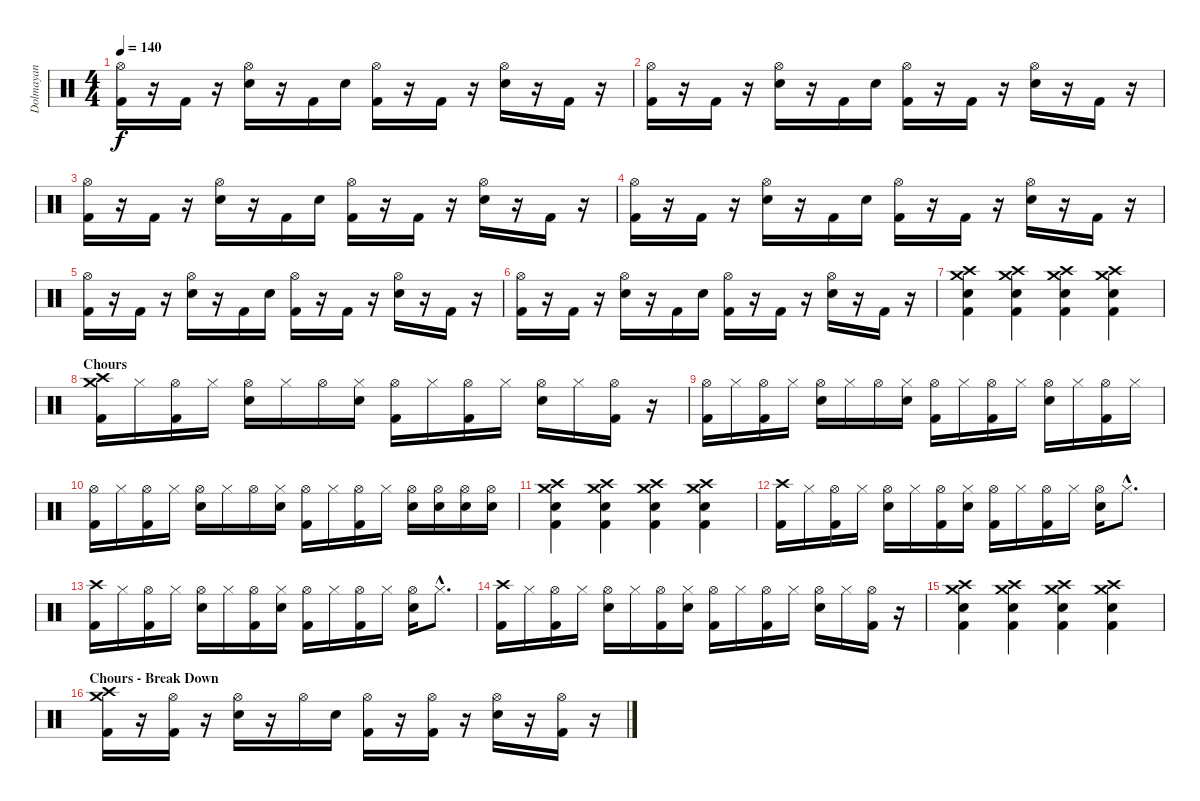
\track ("Dolmayan" "Dolmayan") {instrument percussion}
\staff {score}
\articulation defaults
\ts (4 4)
\tempo 140
\clef neutral
\ks c
("Hi-Hat (open)" "Kick (hit) 2").16{dy f} r.16 "Kick (hit) 2".16 r.16 ("Hi-Hat (open)" "Electric Snare (hit)").16 r.16 "Kick (hit) 2".16 "Electric Snare (hit)".16 ("Hi-Hat (open)" "Kick (hit) 2").16 r.16 "Kick (hit) 2".16 r.16 ("Hi-Hat (open)" "Electric Snare (hit)").16 r.16 "Kick (hit) 2".16 r.16 |
("Hi-Hat (open)" "Kick (hit) 2").16 r.16 "Kick (hit) 2".16 r.16 ("Hi-Hat (open)" "Electric Snare (hit)").16 r.16 "Kick (hit) 2".16 "Electric Snare (hit)".16 ("Hi-Hat (open)" "Kick (hit) 2").16 r.16 "Kick (hit) 2".16 r.16 ("Hi-Hat (open)" "Electric Snare (hit)").16 r.16 "Kick (hit) 2".16 r.16 |
("Hi-Hat (open)" "Kick (hit) 2").16 r.16 "Kick (hit) 2".16 r.16 ("Hi-Hat (open)" "Electric Snare (hit)").16 r.16 "Kick (hit) 2".16 "Electric Snare (hit)".16 ("Hi-Hat (open)" "Kick (hit) 2").16 r.16 "Kick (hit) 2".16 r.16 ("Hi-Hat (open)" "Electric Snare (hit)").16 r.16 "Kick (hit) 2".16 r.16 |
("Hi-Hat (open)" "Kick (hit) 2").16 r.16 "Kick (hit) 2".16 r.16 ("Hi-Hat (open)" "Electric Snare (hit)").16 r.16 "Kick (hit) 2".16 "Electric Snare (hit)".16 ("Hi-Hat (open)" "Kick (hit) 2").16 r.16 "Kick (hit) 2".16 r.16 ("Hi-Hat (open)" "Electric Snare (hit)").16 r.16 "Kick (hit) 2".16 r.16 |
("Hi-Hat (open)" "Kick (hit) 2").16 r.16 "Kick (hit) 2".16 r.16 ("Hi-Hat (open)" "Electric Snare (hit)").16 r.16 "Kick (hit) 2".16 "Electric Snare (hit)".16 ("Hi-Hat (open)" "Kick (hit) 2").16 r.16 "Kick (hit) 2".16 r.16 ("Hi-Hat (open)" "Electric Snare (hit)").16 r.16 "Kick (hit) 2".16 r.16 |
("Hi-Hat (open)" "Kick (hit) 2").16 r.16 "Kick (hit) 2".16 r.16 ("Hi-Hat (open)" "Electric Snare (hit)").16 r.16 "Kick (hit) 2".16 "Electric Snare (hit)".16 ("Hi-Hat (open)" "Kick (hit) 2").16 r.16 "Kick (hit) 2".16 r.16 ("Hi-Hat (open)" "Electric Snare (hit)").16 r.16 "Kick (hit) 2".16 r.16 |
("Crash high (hit)" "Crash medium (hit)" "Electric Snare (hit)" "Kick (hit) 2").4 ("Crash high (hit)" "Crash medium (hit)" "Electric Snare (hit)" "Kick (hit) 2").4 ("Crash high (hit)" "Crash medium (hit)" "Electric Snare (hit)" "Kick (hit) 2").4 ("Crash high (hit)" "Crash medium (hit)" "Electric Snare (hit)" "Kick (hit) 2").4 |
\section ("" "Chours")
("Crash high (hit)" "Crash medium (hit)" "Kick (hit) 2").16 "Hi-Hat (closed)".16 ("Hi-Hat (open)" "Kick (hit) 2").16 "Hi-Hat (closed)".16 ("Hi-Hat (open)" "Electric Snare (hit)").16 "Hi-Hat (closed)".16 "Hi-Hat (open)".16 ("Hi-Hat (closed)" "Electric Snare (hit)").16 ("Hi-Hat (open)" "Kick (hit) 2").16 "Hi-Hat (closed)".16 ("Hi-Hat (open)" "Kick (hit) 2").16 "Hi-Hat (closed)".16 ("Hi-Hat (open)" "Electric Snare (hit)").16 "Hi-Hat (closed)".16 ("Hi-Hat (open)" "Kick (hit) 2").16 r.16 |
("Hi-Hat (open)" "Kick (hit) 2").16 "Hi-Hat (closed)".16 ("Hi-Hat (open)" "Kick (hit) 2").16 "Hi-Hat (closed)".16 ("Hi-Hat (open)" "Electric Snare (hit)").16 "Hi-Hat (closed)".16 "Hi-Hat (open)".16 ("Hi-Hat (closed)" "Electric Snare (hit)").16 ("Hi-Hat (open)" "Kick (hit) 2").16 "Hi-Hat (closed)".16 ("Hi-Hat (open)" "Kick (hit) 2").16 "Hi-Hat (closed)".16 ("Hi-Hat (open)" "Electric Snare (hit)").16 "Hi-Hat (closed)".16 ("Hi-Hat (open)" "Kick (hit) 2").16 "Hi-Hat (closed)".16 |
("Hi-Hat (open)" "Kick (hit) 2").16 "Hi-Hat (closed)".16 ("Hi-Hat (open)" "Kick (hit) 2").16 "Hi-Hat (closed)".16 ("Hi-Hat (open)" "Electric Snare (hit)").16 "Hi-Hat (closed)".16 "Hi-Hat (open)".16 ("Hi-Hat (closed)" "Electric Snare (hit)").16 ("Hi-Hat (open)" "Kick (hit) 2").16 "Hi-Hat (closed)".16 ("Hi-Hat (open)" "Kick (hit) 2").16 "Hi-Hat (closed)".16 ("Hi-Hat (open)" "Electric Snare (hit)").16 ("Hi-Hat (open)" "Electric Snare (hit)").16 ("Hi-Hat (open)" "Electric Snare (hit)").16 ("Hi-Hat (open)" "Electric Snare (hit)").16 |
("Crash high (hit)" "Crash medium (hit)" "Electric Snare (hit)" "Kick (hit) 2").4 ("Crash high (hit)" "Crash medium (hit)" "Electric Snare (hit)" "Kick (hit) 2").4 ("Crash high (hit)" "Crash medium (hit)" "Electric Snare (hit)" "Kick (hit) 2").4 ("Crash high (hit)" "Crash medium (hit)" "Electric Snare (hit)" "Kick (hit) 2").4 |
("Crash high (hit)" "Kick (hit) 2").16 "Hi-Hat (closed)".16 ("Hi-Hat (open)" "Kick (hit) 2").16 "Hi-Hat (closed)".16 ("Hi-Hat (open)" "Electric Snare (hit)").16 "Hi-Hat (closed)".16 ("Hi-Hat (open)" "Kick (hit) 2").16 ("Hi-Hat (closed)" "Electric Snare (hit)").16 ("Hi-Hat (open)" "Kick (hit) 2").16 "Hi-Hat (closed)".16 ("Hi-Hat (open)" "Kick (hit) 2").16 "Hi-Hat (closed)".16 ("Hi-Hat (open)" "Electric Snare (hit)").16 "Hi-Hat (closed)"{hac}.8{d} |
("Crash high (hit)" "Kick (hit) 2").16 "Hi-Hat (closed)".16 ("Hi-Hat (open)" "Kick (hit) 2").16 "Hi-Hat (closed)".16 ("Hi-Hat (open)" "Electric Snare (hit)").16 "Hi-Hat (closed)".16 ("Hi-Hat (open)" "Kick (hit) 2").16 ("Hi-Hat (closed)" "Electric Snare (hit)").16 ("Hi-Hat (open)" "Kick (hit) 2").16 "Hi-Hat (closed)".16 ("Hi-Hat (open)" "Kick (hit) 2").16 "Hi-Hat (closed)".16 ("Hi-Hat (open)" "Electric Snare (hit)").16 "Hi-Hat (closed)"{hac}.8{d} |
("Crash high (hit)" "Kick (hit) 2").16 "Hi-Hat (closed)".16 ("Hi-Hat (open)" "Kick (hit) 2").16 "Hi-Hat (closed)".16 ("Hi-Hat (open)" "Electric Snare (hit)").16 "Hi-Hat (closed)".16 ("Hi-Hat (open)" "Kick (hit) 2").16 ("Hi-Hat (closed)" "Electric Snare (hit)").16 ("Hi-Hat (open)" "Kick (hit) 2").16 "Hi-Hat (closed)".16 ("Hi-Hat (open)" "Kick (hit) 2").16 "Hi-Hat (closed)".16 ("Hi-Hat (open)" "Electric Snare (hit)").16 "Hi-Hat (closed)".16 ("Hi-Hat (open)" "Kick (hit) 2").16 r.16 |
("Crash high (hit)" "Crash medium (hit)" "Electric Snare (hit)" "Kick (hit) 2").4 ("Crash high (hit)" "Crash medium (hit)" "Electric Snare (hit)" "Kick (hit) 2").4 ("Crash high (hit)" "Crash medium (hit)" "Electric Snare (hit)" "Kick (hit) 2").4 ("Crash high (hit)" "Crash medium (hit)" "Electric Snare (hit)" "Kick (hit) 2").4 |
\section ("" "Chours - Break Down")
("Crash high (hit)" "Crash medium (hit)" "Kick (hit) 2").16 r.16 ("Hi-Hat (open)" "Kick (hit) 2").16 r.16 ("Hi-Hat (open)" "Electric Snare (hit)").16 r.16 "Hi-Hat (open)".16 "Electric Snare (hit)".16 ("Hi-Hat (open)" "Kick (hit) 2").16 r.16 ("Hi-Hat (open)" "Kick (hit) 2").16 r.16 ("Hi-Hat (open)" "Electric Snare (hit)").16 r.16 ("Hi-Hat (open)" "Kick (hit) 2").16 r.16
